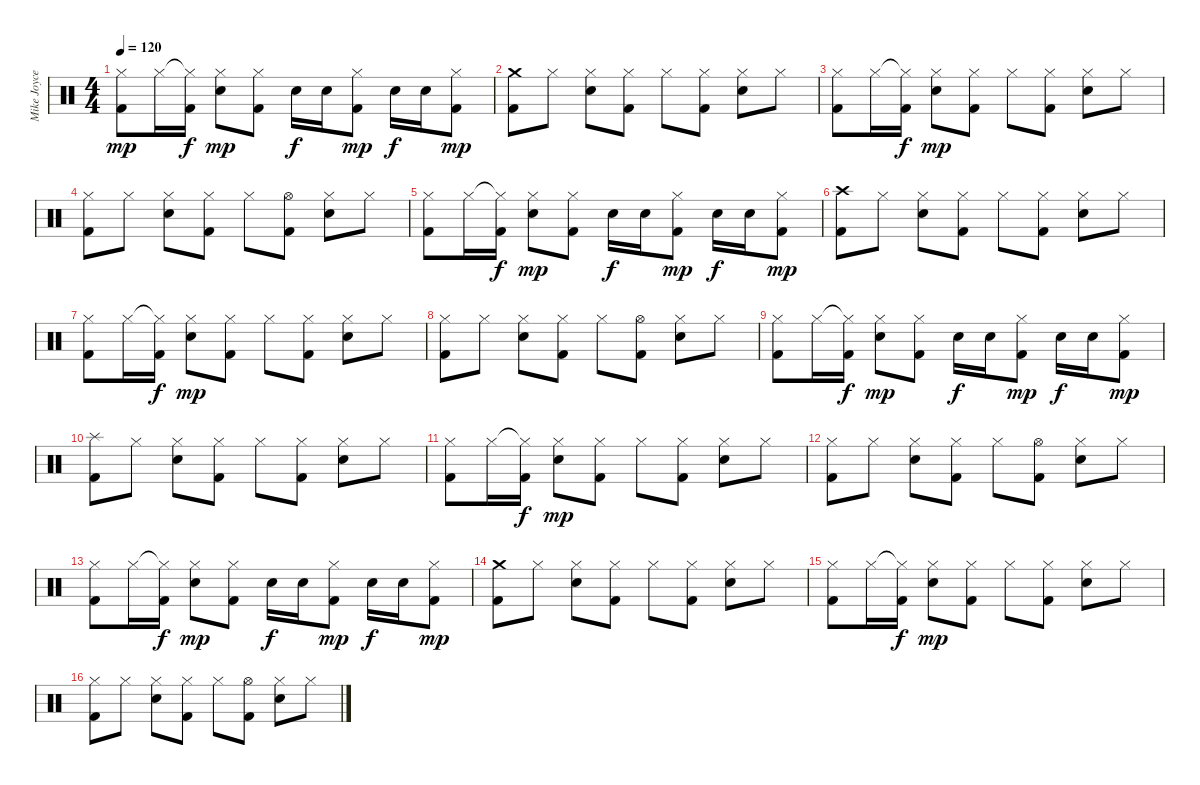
\track ("Mike Joyce" "Mike Joyce") {instrument percussion}
\staff {score}
\articulation defaults
\ts (4 4)
\tempo 120
\clef neutral
\ks c
("Hi-Hat (closed)" "Kick (hit) 2").8{dy mp} "Hi-Hat (closed)".16 ("Hi-Hat (closed)"{t} "Kick (hit) 2").16{dy f} ("Hi-Hat (closed)" "Electric Snare (hit)").8{dy mp} ("Hi-Hat (closed)" "Kick (hit) 2").8 "Electric Snare (hit)".16{dy f} "Electric Snare (hit)".16 ("Hi-Hat (closed)" "Kick (hit) 2").8{dy mp} "Electric Snare (hit)".16{dy f} "Electric Snare (hit)".16 ("Hi-Hat (closed)" "Kick (hit) 2").8{dy mp} |
("Crash medium (hit)" "Kick (hit) 2").8 "Hi-Hat (closed)".8 ("Hi-Hat (closed)" "Electric Snare (hit)").8 ("Hi-Hat (closed)" "Kick (hit) 2").8 "Hi-Hat (closed)".8 ("Hi-Hat (closed)" "Kick (hit) 2").8 ("Hi-Hat (closed)" "Electric Snare (hit)").8 "Hi-Hat (closed)".8 |
("Hi-Hat (closed)" "Kick (hit) 2").8 "Hi-Hat (closed)".16 ("Hi-Hat (closed)"{t} "Kick (hit) 2").16{dy f} ("Hi-Hat (closed)" "Electric Snare (hit)").8{dy mp} ("Hi-Hat (closed)" "Kick (hit) 2").8 "Hi-Hat (closed)".8 ("Hi-Hat (closed)" "Kick (hit) 2").8 ("Hi-Hat (closed)" "Electric Snare (hit)").8 "Hi-Hat (closed)".8 |
("Hi-Hat (closed)" "Kick (hit) 2").8 "Hi-Hat (closed)".8 ("Hi-Hat (closed)" "Electric Snare (hit)").8 ("Hi-Hat (closed)" "Kick (hit) 2").8 "Hi-Hat (closed)".8 ("Hi-Hat (open)" "Kick (hit) 2").8 ("Hi-Hat (closed)" "Electric Snare (hit)").8 "Hi-Hat (closed)".8 |
("Hi-Hat (closed)" "Kick (hit) 2").8 "Hi-Hat (closed)".16 ("Hi-Hat (closed)"{t} "Kick (hit) 2").16{dy f} ("Hi-Hat (closed)" "Electric Snare (hit)").8{dy mp} ("Hi-Hat (closed)" "Kick (hit) 2").8 "Electric Snare (hit)".16{dy f} "Electric Snare (hit)".16 ("Hi-Hat (closed)" "Kick (hit) 2").8{dy mp} "Electric Snare (hit)".16{dy f} "Electric Snare (hit)".16 ("Hi-Hat (closed)" "Kick (hit) 2").8{dy mp} |
("Crash high (hit)" "Kick (hit) 2").8 "Hi-Hat (closed)".8 ("Hi-Hat (closed)" "Electric Snare (hit)").8 ("Hi-Hat (closed)" "Kick (hit) 2").8 "Hi-Hat (closed)".8 ("Hi-Hat (closed)" "Kick (hit) 2").8 ("Hi-Hat (closed)" "Electric Snare (hit)").8 "Hi-Hat (closed)".8 |
("Hi-Hat (closed)" "Kick (hit) 2").8 "Hi-Hat (closed)".16 ("Hi-Hat (closed)"{t} "Kick (hit) 2").16{dy f} ("Hi-Hat (closed)" "Electric Snare (hit)").8{dy mp} ("Hi-Hat (closed)" "Kick (hit) 2").8 "Hi-Hat (closed)".8 ("Hi-Hat (closed)" "Kick (hit) 2").8 ("Hi-Hat (closed)" "Electric Snare (hit)").8 "Hi-Hat (closed)".8 |
("Hi-Hat (closed)" "Kick (hit) 2").8 "Hi-Hat (closed)".8 ("Hi-Hat (closed)" "Electric Snare (hit)").8 ("Hi-Hat (closed)" "Kick (hit) 2").8 "Hi-Hat (closed)".8 ("Hi-Hat (open)" "Kick (hit) 2").8 ("Hi-Hat (closed)" "Electric Snare (hit)").8 "Hi-Hat (closed)".8 |
("Hi-Hat (closed)" "Kick (hit) 2").8 "Hi-Hat (closed)".16 ("Hi-Hat (closed)"{t} "Kick (hit) 2").16{dy f} ("Hi-Hat (closed)" "Electric Snare (hit)").8{dy mp} ("Hi-Hat (closed)" "Kick (hit) 2").8 "Electric Snare (hit)".16{dy f} "Electric Snare (hit)".16 ("Hi-Hat (closed)" "Kick (hit) 2").8{dy mp} "Electric Snare (hit)".16{dy f} "Electric Snare (hit)".16 ("Hi-Hat (closed)" "Kick (hit) 2").8{dy mp} |
("Splash (hit)" "Kick (hit) 2").8 "Hi-Hat (closed)".8 ("Hi-Hat (closed)" "Electric Snare (hit)").8 ("Hi-Hat (closed)" "Kick (hit) 2").8 "Hi-Hat (closed)".8 ("Hi-Hat (closed)" "Kick (hit) 2").8 ("Hi-Hat (closed)" "Electric Snare (hit)").8 "Hi-Hat (closed)".8 |
("Hi-Hat (closed)" "Kick (hit) 2").8 "Hi-Hat (closed)".16 ("Hi-Hat (closed)"{t} "Kick (hit) 2").16{dy f} ("Hi-Hat (closed)" "Electric Snare (hit)").8{dy mp} ("Hi-Hat (closed)" "Kick (hit) 2").8 "Hi-Hat (closed)".8 ("Hi-Hat (closed)" "Kick (hit) 2").8 ("Hi-Hat (closed)" "Electric Snare (hit)").8 "Hi-Hat (closed)".8 |
("Hi-Hat (closed)" "Kick (hit) 2").8 "Hi-Hat (closed)".8 ("Hi-Hat (closed)" "Electric Snare (hit)").8 ("Hi-Hat (closed)" "Kick (hit) 2").8 "Hi-Hat (closed)".8 ("Hi-Hat (open)" "Kick (hit) 2").8 ("Hi-Hat (closed)" "Electric Snare (hit)").8 "Hi-Hat (closed)".8 |
("Hi-Hat (closed)" "Kick (hit) 2").8 "Hi-Hat (closed)".16 ("Hi-Hat (closed)"{t} "Kick (hit) 2").16{dy f} ("Hi-Hat (closed)" "Electric Snare (hit)").8{dy mp} ("Hi-Hat (closed)" "Kick (hit) 2").8 "Electric Snare (hit)".16{dy f} "Electric Snare (hit)".16 ("Hi-Hat (closed)" "Kick (hit) 2").8{dy mp} "Electric Snare (hit)".16{dy f} "Electric Snare (hit)".16 ("Hi-Hat (closed)" "Kick (hit) 2").8{dy mp} |
("Crash medium (hit)" "Kick (hit) 2").8 "Hi-Hat (closed)".8 ("Hi-Hat (closed)" "Electric Snare (hit)").8 ("Hi-Hat (closed)" "Kick (hit) 2").8 "Hi-Hat (closed)".8 ("Hi-Hat (closed)" "Kick (hit) 2").8 ("Hi-Hat (closed)" "Electric Snare (hit)").8 "Hi-Hat (closed)".8 |
("Hi-Hat (closed)" "Kick (hit) 2").8 "Hi-Hat (closed)".16 ("Hi-Hat (closed)"{t} "Kick (hit) 2").16{dy f} ("Hi-Hat (closed)" "Electric Snare (hit)").8{dy mp} ("Hi-Hat (closed)" "Kick (hit) 2").8 "Hi-Hat (closed)".8 ("Hi-Hat (closed)" "Kick (hit) 2").8 ("Hi-Hat (closed)" "Electric Snare (hit)").8 "Hi-Hat (closed)".8 |
("Hi-Hat (closed)" "Kick (hit) 2").8 "Hi-Hat (closed)".8 ("Hi-Hat (closed)" "Electric Snare (hit)").8 ("Hi-Hat (closed)" "Kick (hit) 2").8 "Hi-Hat (closed)".8 ("Hi-Hat (open)" "Kick (hit) 2").8 ("Hi-Hat (closed)" "Electric Snare (hit)").8 "Hi-Hat (closed)".8
